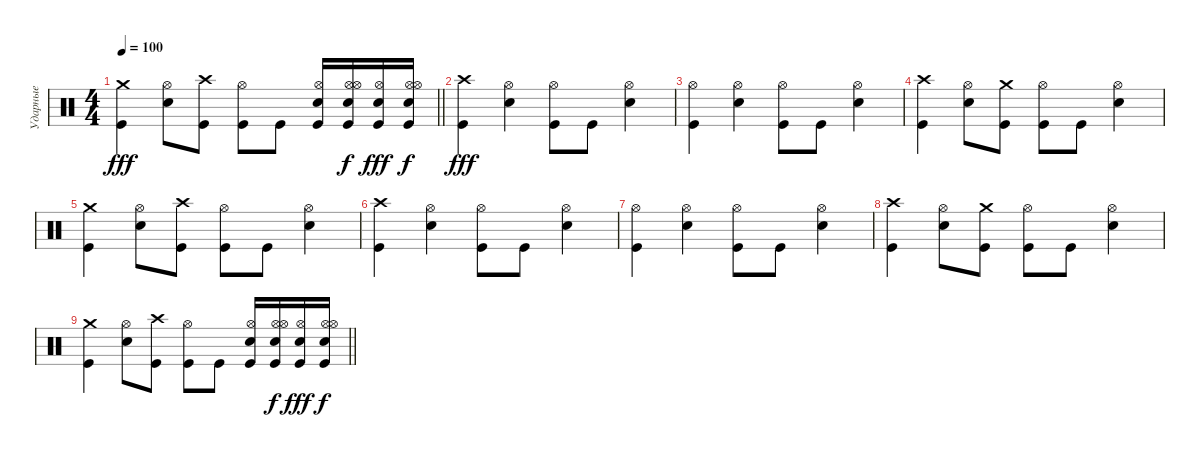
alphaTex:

\track ("Ударные" "Ударные") {instrument percussion}
\staff {score}
\articulation defaults
\ts (4 4)
\tempo 100
\clef neutral
\barLineRight lightlight
\ks c
("Crash medium (hit)" "Kick (hit)").4{dy fff} ("Hi-Hat (open)" "Electric Snare (hit)").8 ("Crash high (hit)" "Kick (hit)").8 ("Hi-Hat (open)" "Kick (hit)").8 "Kick (hit)".8 ("Kick (hit)" "Hi-Hat (open)" "Electric Snare (hit)").16 ("Snare (hit) 2" "Kick (hit)" "Hi-Hat (open)" "Hi-Hat (open)").16{dy f} ("Kick (hit)" "Hi-Hat (open)" "Electric Snare (hit)").16{dy fff} ("Snare (hit) 2" "Kick (hit)" "Hi-Hat (open)" "Hi-Hat (open)").16{dy f} |
("Crash high (hit)" "Kick (hit)").4{dy fff} ("Hi-Hat (open)" "Electric Snare (hit)").4 ("Hi-Hat (open)" "Kick (hit)").8 "Kick (hit)".8 ("Hi-Hat (open)" "Electric Snare (hit)").4 |
("Hi-Hat (open)" "Kick (hit)").4 ("Hi-Hat (open)" "Electric Snare (hit)").4 ("Hi-Hat (open)" "Kick (hit)").8 "Kick (hit)".8 ("Hi-Hat (open)" "Electric Snare (hit)").4 |
("Crash high (hit)" "Kick (hit)").4 ("Hi-Hat (open)" "Electric Snare (hit)").8 ("Crash medium (hit)" "Kick (hit)").8 ("Hi-Hat (open)" "Kick (hit)").8 "Kick (hit)".8 ("Hi-Hat (open)" "Electric Snare (hit)").4 |
("Crash medium (hit)" "Kick (hit)").4 ("Hi-Hat (open)" "Electric Snare (hit)").8 ("Crash high (hit)" "Kick (hit)").8 ("Hi-Hat (open)" "Kick (hit)").8 "Kick (hit)".8 ("Hi-Hat (open)" "Electric Snare (hit)").4 |
("Crash high (hit)" "Kick (hit)").4 ("Hi-Hat (open)" "Electric Snare (hit)").4 ("Hi-Hat (open)" "Kick (hit)").8 "Kick (hit)".8 ("Hi-Hat (open)" "Electric Snare (hit)").4 |
("Hi-Hat (open)" "Kick (hit)").4 ("Hi-Hat (open)" "Electric Snare (hit)").4 ("Hi-Hat (open)" "Kick (hit)").8 "Kick (hit)".8 ("Hi-Hat (open)" "Electric Snare (hit)").4 |
("Crash high (hit)" "Kick (hit)").4 ("Hi-Hat (open)" "Electric Snare (hit)").8 ("Crash medium (hit)" "Kick (hit)").8 ("Hi-Hat (open)" "Kick (hit)").8 "Kick (hit)".8 ("Hi-Hat (open)" "Electric Snare (hit)").4 |
\barLineRight lightlight
("Crash medium (hit)" "Kick (hit)").4 ("Hi-Hat (open)" "Electric Snare (hit)").8 ("Crash high (hit)" "Kick (hit)").8 ("Hi-Hat (open)" "Kick (hit)").8 "Kick (hit)".8 ("Kick (hit)" "Hi-Hat (open)" "Electric Snare (hit)").16 ("Snare (hit) 2" "Kick (hit)" "Hi-Hat (open)" "Hi-Hat (open)").16{dy f} ("Kick (hit)" "Hi-Hat (open)" "Electric Snare (hit)").16{dy fff} ("Snare (hit) 2" "Kick (hit)" "Hi-Hat (open)" "Hi-Hat (open)").16{dy f}
